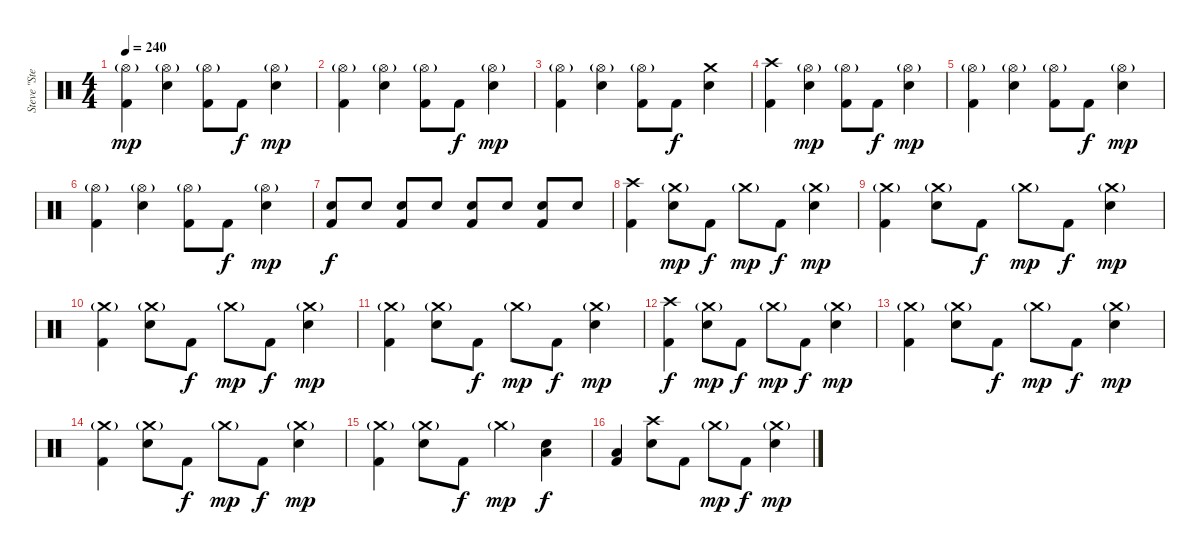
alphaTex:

\track ("Steve \"Stevo32\" Jocz " "Steve \"Ste") {instrument percussion}
\staff {score}
\articulation defaults
\ts (4 4)
\tempo 240
\clef neutral
\ks c
("Hi-Hat (open)"{g} "Kick (hit) 2").4{dy mp} ("Hi-Hat (open)"{g} "Electric Snare (hit)").4 ("Hi-Hat (open)"{g} "Kick (hit) 2").8 "Kick (hit) 2".8{dy f} ("Hi-Hat (open)"{g} "Electric Snare (hit)").4{dy mp} |
("Hi-Hat (open)"{g} "Kick (hit) 2").4 ("Hi-Hat (open)"{g} "Electric Snare (hit)").4 ("Hi-Hat (open)"{g} "Kick (hit) 2").8 "Kick (hit) 2".8{dy f} ("Hi-Hat (open)"{g} "Electric Snare (hit)").4{dy mp} |
("Hi-Hat (open)"{g} "Kick (hit) 2").4 ("Hi-Hat (open)"{g} "Electric Snare (hit)").4 ("Hi-Hat (open)"{g} "Kick (hit) 2").8 "Kick (hit) 2".8{dy f} ("Crash medium (hit)" "Electric Snare (hit)").4 |
("Crash high (hit)" "Kick (hit) 2").4 ("Hi-Hat (open)"{g} "Electric Snare (hit)").4{dy mp} ("Hi-Hat (open)"{g} "Kick (hit) 2").8 "Kick (hit) 2".8{dy f} ("Hi-Hat (open)"{g} "Electric Snare (hit)").4{dy mp} |
("Hi-Hat (open)"{g} "Kick (hit) 2").4 ("Hi-Hat (open)"{g} "Electric Snare (hit)").4 ("Hi-Hat (open)"{g} "Kick (hit) 2").8 "Kick (hit) 2".8{dy f} ("Hi-Hat (open)"{g} "Electric Snare (hit)").4{dy mp} |
("Hi-Hat (open)"{g} "Kick (hit) 2").4 ("Hi-Hat (open)"{g} "Electric Snare (hit)").4 ("Hi-Hat (open)"{g} "Kick (hit) 2").8 "Kick (hit) 2".8{dy f} ("Hi-Hat (open)"{g} "Electric Snare (hit)").4{dy mp} |
("Electric Snare (hit)" "Kick (hit) 2").8{dy f} "Electric Snare (hit)".8 ("Electric Snare (hit)" "Kick (hit) 2").8 "Electric Snare (hit)".8 ("Electric Snare (hit)" "Kick (hit) 2").8 "Electric Snare (hit)".8 ("Electric Snare (hit)" "Kick (hit) 2").8 "Electric Snare (hit)".8 |
("Crash high (hit)" "Kick (hit) 2").4 ("Crash medium (hit)"{g} "Electric Snare (hit)").8{dy mp} "Kick (hit) 2".8{dy f} "Crash medium (hit)"{g}.8{dy mp} "Kick (hit) 2".8{dy f} ("Crash medium (hit)"{g} "Electric Snare (hit)").4{dy mp} |
("Crash medium (hit)"{g} "Kick (hit) 2").4 ("Crash medium (hit)"{g} "Electric Snare (hit)").8 "Kick (hit) 2".8{dy f} "Crash medium (hit)"{g}.8{dy mp} "Kick (hit) 2".8{dy f} ("Crash medium (hit)"{g} "Electric Snare (hit)").4{dy mp} |
("Crash medium (hit)"{g} "Kick (hit) 2").4 ("Crash medium (hit)"{g} "Electric Snare (hit)").8 "Kick (hit) 2".8{dy f} "Crash medium (hit)"{g}.8{dy mp} "Kick (hit) 2".8{dy f} ("Crash medium (hit)"{g} "Electric Snare (hit)").4{dy mp} |
("Crash medium (hit)"{g} "Kick (hit) 2").4 ("Crash medium (hit)"{g} "Electric Snare (hit)").8 "Kick (hit) 2".8{dy f} "Crash medium (hit)"{g}.8{dy mp} "Kick (hit) 2".8{dy f} ("Crash medium (hit)"{g} "Electric Snare (hit)").4{dy mp} |
("Crash high (hit)" "Kick (hit) 2").4{dy f} ("Crash medium (hit)"{g} "Electric Snare (hit)").8{dy mp} "Kick (hit) 2".8{dy f} "Crash medium (hit)"{g}.8{dy mp} "Kick (hit) 2".8{dy f} ("Crash medium (hit)"{g} "Electric Snare (hit)").4{dy mp} |
("Crash medium (hit)"{g} "Kick (hit) 2").4 ("Crash medium (hit)"{g} "Electric Snare (hit)").8 "Kick (hit) 2".8{dy f} "Crash medium (hit)"{g}.8{dy mp} "Kick (hit) 2".8{dy f} ("Crash medium (hit)"{g} "Electric Snare (hit)").4{dy mp} |
("Crash medium (hit)"{g} "Kick (hit) 2").4 ("Crash medium (hit)"{g} "Electric Snare (hit)").8 "Kick (hit) 2".8{dy f} "Crash medium (hit)"{g}.8{dy mp} "Kick (hit) 2".8{dy f} ("Crash medium (hit)"{g} "Electric Snare (hit)").4{dy mp} |
("Crash medium (hit)"{g} "Kick (hit) 2").4 ("Crash medium (hit)"{g} "Electric Snare (hit)").8 "Kick (hit) 2".8{dy f} "Crash medium (hit)"{g}.4{dy mp} ("Low Tom (hit)" "Electric Snare (hit)").4{dy f} |
("Low Tom (hit)" "Kick (hit) 2").4 ("Crash high (hit)" "Electric Snare (hit)").8 "Kick (hit) 2".8 "Crash medium (hit)"{g}.8{dy mp} "Kick (hit) 2".8{dy f} ("Crash medium (hit)"{g} "Electric Snare (hit)").4{dy mp}
